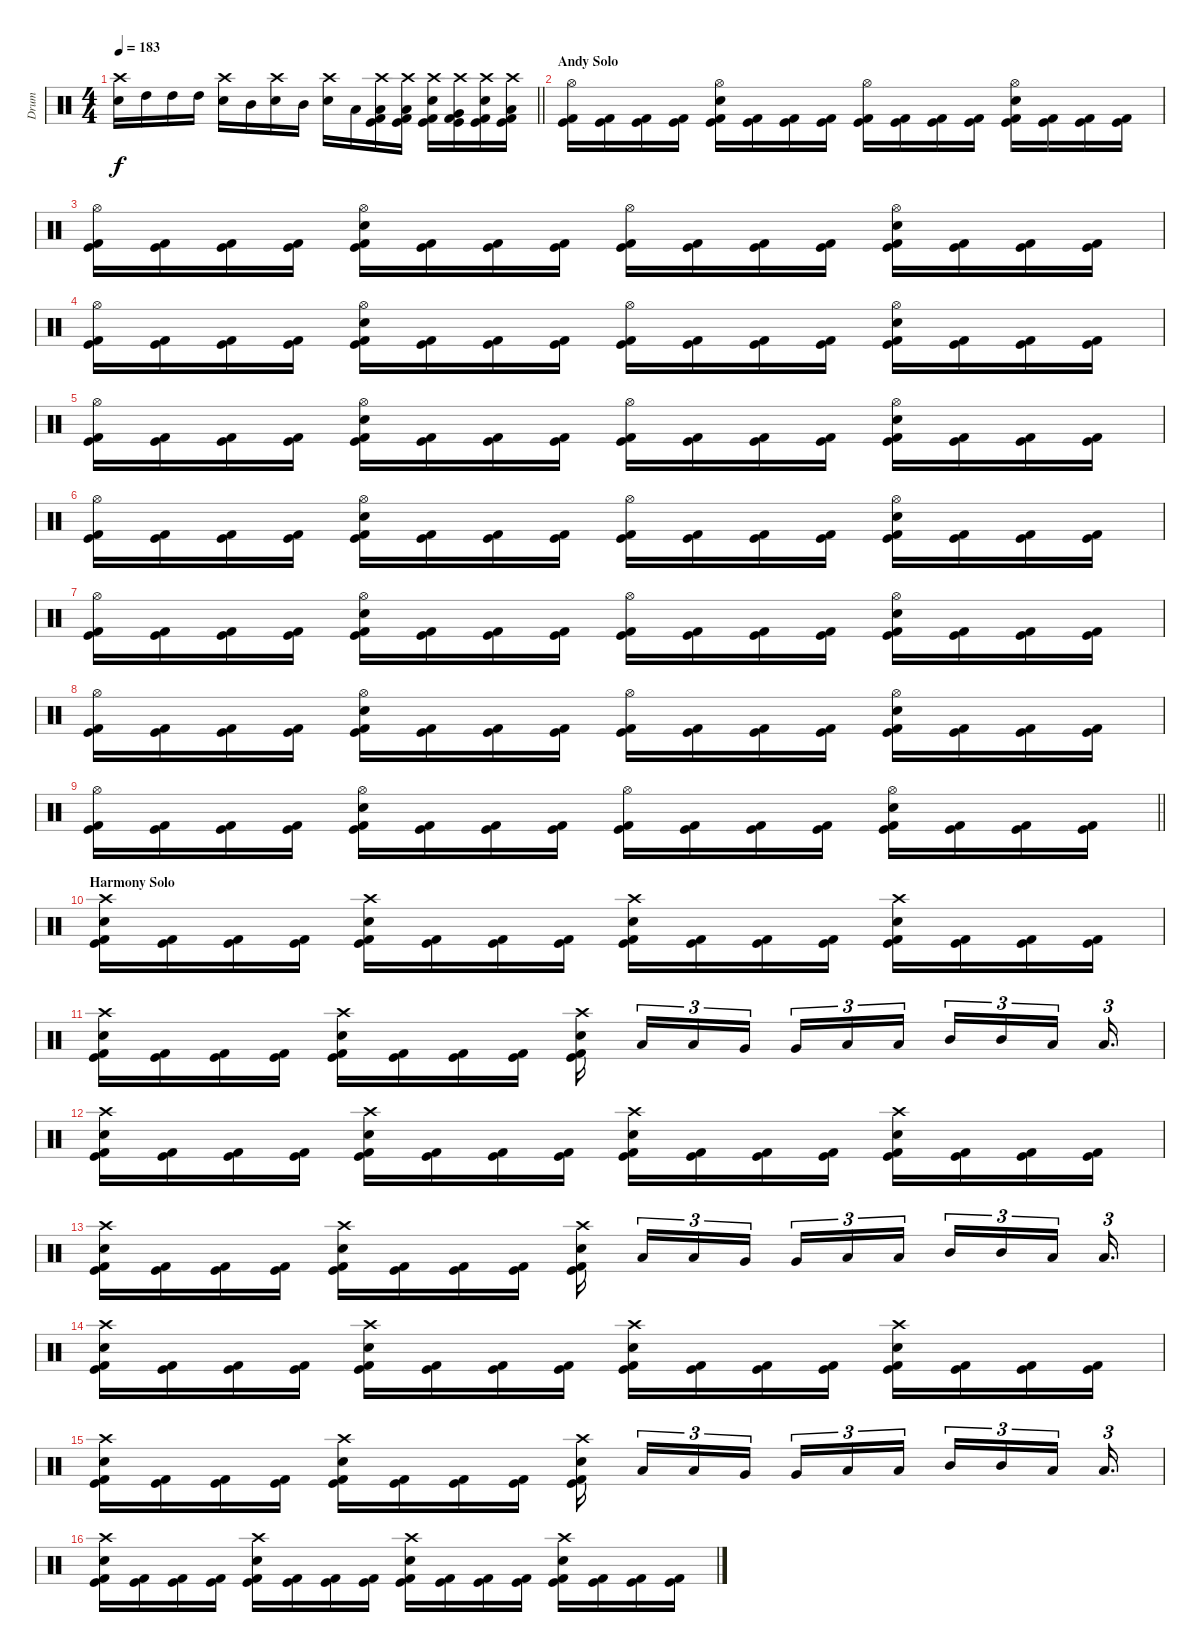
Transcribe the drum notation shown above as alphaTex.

\track ("Drum" "Drum") {instrument percussion}
\staff {score}
\articulation defaults
\ts (4 4)
\tempo 183
\clef neutral
\barLineRight lightlight
\ks c
("Crash high (hit)" "Electric Snare (hit)").16{dy f} "High Tom (hit)".16 "High Tom (hit)".16 "High Tom (hit)".16 ("Crash high (hit)" "Electric Snare (hit)").16 "Mid Tom (hit)".16 ("Crash high (hit)" "Electric Snare (hit)").16 "Mid Tom (hit)".16 ("Crash high (hit)" "Electric Snare (hit)").16 "Low Tom (hit)".16 ("Crash high (hit)" "Low Tom (hit)" "Kick (hit)" "Kick (hit) 2").16 ("Crash high (hit)" "Low Tom (hit)" "Kick (hit)" "Kick (hit) 2").16 ("Crash high (hit)" "Electric Snare (hit)" "Kick (hit)" "Kick (hit) 2").16 ("Crash high (hit)" "Very Low Tom (hit)" "Kick (hit)" "Kick (hit) 2").16 ("Crash high (hit)" "Electric Snare (hit)" "Kick (hit)" "Kick (hit) 2").16 ("Crash high (hit)" "Low Floor Tom (hit)" "Kick (hit)" "Kick (hit) 2").16 |
\section ("" "Andy Solo")
("Hi-Hat (open)" "Kick (hit)" "Kick (hit) 2").16 ("Kick (hit)" "Kick (hit) 2").16 ("Kick (hit)" "Kick (hit) 2").16 ("Kick (hit)" "Kick (hit) 2").16 ("Hi-Hat (open)" "Electric Snare (hit)" "Kick (hit)" "Kick (hit) 2").16 ("Kick (hit)" "Kick (hit) 2").16 ("Kick (hit)" "Kick (hit) 2").16 ("Kick (hit)" "Kick (hit) 2").16 ("Hi-Hat (open)" "Kick (hit)" "Kick (hit) 2").16 ("Kick (hit)" "Kick (hit) 2").16 ("Kick (hit)" "Kick (hit) 2").16 ("Kick (hit)" "Kick (hit) 2").16 ("Hi-Hat (open)" "Electric Snare (hit)" "Kick (hit)" "Kick (hit) 2").16 ("Kick (hit)" "Kick (hit) 2").16 ("Kick (hit)" "Kick (hit) 2").16 ("Kick (hit)" "Kick (hit) 2").16 |
("Hi-Hat (open)" "Kick (hit)" "Kick (hit) 2").16 ("Kick (hit)" "Kick (hit) 2").16 ("Kick (hit)" "Kick (hit) 2").16 ("Kick (hit)" "Kick (hit) 2").16 ("Hi-Hat (open)" "Electric Snare (hit)" "Kick (hit)" "Kick (hit) 2").16 ("Kick (hit)" "Kick (hit) 2").16 ("Kick (hit)" "Kick (hit) 2").16 ("Kick (hit)" "Kick (hit) 2").16 ("Hi-Hat (open)" "Kick (hit)" "Kick (hit) 2").16 ("Kick (hit)" "Kick (hit) 2").16 ("Kick (hit)" "Kick (hit) 2").16 ("Kick (hit)" "Kick (hit) 2").16 ("Hi-Hat (open)" "Electric Snare (hit)" "Kick (hit)" "Kick (hit) 2").16 ("Kick (hit)" "Kick (hit) 2").16 ("Kick (hit)" "Kick (hit) 2").16 ("Kick (hit)" "Kick (hit) 2").16 |
("Hi-Hat (open)" "Kick (hit)" "Kick (hit) 2").16 ("Kick (hit)" "Kick (hit) 2").16 ("Kick (hit)" "Kick (hit) 2").16 ("Kick (hit)" "Kick (hit) 2").16 ("Hi-Hat (open)" "Electric Snare (hit)" "Kick (hit)" "Kick (hit) 2").16 ("Kick (hit)" "Kick (hit) 2").16 ("Kick (hit)" "Kick (hit) 2").16 ("Kick (hit)" "Kick (hit) 2").16 ("Hi-Hat (open)" "Kick (hit)" "Kick (hit) 2").16 ("Kick (hit)" "Kick (hit) 2").16 ("Kick (hit)" "Kick (hit) 2").16 ("Kick (hit)" "Kick (hit) 2").16 ("Hi-Hat (open)" "Electric Snare (hit)" "Kick (hit)" "Kick (hit) 2").16 ("Kick (hit)" "Kick (hit) 2").16 ("Kick (hit)" "Kick (hit) 2").16 ("Kick (hit)" "Kick (hit) 2").16 |
("Hi-Hat (open)" "Kick (hit)" "Kick (hit) 2").16 ("Kick (hit)" "Kick (hit) 2").16 ("Kick (hit)" "Kick (hit) 2").16 ("Kick (hit)" "Kick (hit) 2").16 ("Hi-Hat (open)" "Electric Snare (hit)" "Kick (hit)" "Kick (hit) 2").16 ("Kick (hit)" "Kick (hit) 2").16 ("Kick (hit)" "Kick (hit) 2").16 ("Kick (hit)" "Kick (hit) 2").16 ("Hi-Hat (open)" "Kick (hit)" "Kick (hit) 2").16 ("Kick (hit)" "Kick (hit) 2").16 ("Kick (hit)" "Kick (hit) 2").16 ("Kick (hit)" "Kick (hit) 2").16 ("Hi-Hat (open)" "Electric Snare (hit)" "Kick (hit)" "Kick (hit) 2").16 ("Kick (hit)" "Kick (hit) 2").16 ("Kick (hit)" "Kick (hit) 2").16 ("Kick (hit)" "Kick (hit) 2").16 |
("Hi-Hat (open)" "Kick (hit)" "Kick (hit) 2").16 ("Kick (hit)" "Kick (hit) 2").16 ("Kick (hit)" "Kick (hit) 2").16 ("Kick (hit)" "Kick (hit) 2").16 ("Hi-Hat (open)" "Electric Snare (hit)" "Kick (hit)" "Kick (hit) 2").16 ("Kick (hit)" "Kick (hit) 2").16 ("Kick (hit)" "Kick (hit) 2").16 ("Kick (hit)" "Kick (hit) 2").16 ("Hi-Hat (open)" "Kick (hit)" "Kick (hit) 2").16 ("Kick (hit)" "Kick (hit) 2").16 ("Kick (hit)" "Kick (hit) 2").16 ("Kick (hit)" "Kick (hit) 2").16 ("Hi-Hat (open)" "Electric Snare (hit)" "Kick (hit)" "Kick (hit) 2").16 ("Kick (hit)" "Kick (hit) 2").16 ("Kick (hit)" "Kick (hit) 2").16 ("Kick (hit)" "Kick (hit) 2").16 |
("Hi-Hat (open)" "Kick (hit)" "Kick (hit) 2").16 ("Kick (hit)" "Kick (hit) 2").16 ("Kick (hit)" "Kick (hit) 2").16 ("Kick (hit)" "Kick (hit) 2").16 ("Hi-Hat (open)" "Electric Snare (hit)" "Kick (hit)" "Kick (hit) 2").16 ("Kick (hit)" "Kick (hit) 2").16 ("Kick (hit)" "Kick (hit) 2").16 ("Kick (hit)" "Kick (hit) 2").16 ("Hi-Hat (open)" "Kick (hit)" "Kick (hit) 2").16 ("Kick (hit)" "Kick (hit) 2").16 ("Kick (hit)" "Kick (hit) 2").16 ("Kick (hit)" "Kick (hit) 2").16 ("Hi-Hat (open)" "Electric Snare (hit)" "Kick (hit)" "Kick (hit) 2").16 ("Kick (hit)" "Kick (hit) 2").16 ("Kick (hit)" "Kick (hit) 2").16 ("Kick (hit)" "Kick (hit) 2").16 |
("Hi-Hat (open)" "Kick (hit)" "Kick (hit) 2").16 ("Kick (hit)" "Kick (hit) 2").16 ("Kick (hit)" "Kick (hit) 2").16 ("Kick (hit)" "Kick (hit) 2").16 ("Hi-Hat (open)" "Electric Snare (hit)" "Kick (hit)" "Kick (hit) 2").16 ("Kick (hit)" "Kick (hit) 2").16 ("Kick (hit)" "Kick (hit) 2").16 ("Kick (hit)" "Kick (hit) 2").16 ("Hi-Hat (open)" "Kick (hit)" "Kick (hit) 2").16 ("Kick (hit)" "Kick (hit) 2").16 ("Kick (hit)" "Kick (hit) 2").16 ("Kick (hit)" "Kick (hit) 2").16 ("Hi-Hat (open)" "Electric Snare (hit)" "Kick (hit)" "Kick (hit) 2").16 ("Kick (hit)" "Kick (hit) 2").16 ("Kick (hit)" "Kick (hit) 2").16 ("Kick (hit)" "Kick (hit) 2").16 |
\barLineRight lightlight
("Hi-Hat (open)" "Kick (hit)" "Kick (hit) 2").16 ("Kick (hit)" "Kick (hit) 2").16 ("Kick (hit)" "Kick (hit) 2").16 ("Kick (hit)" "Kick (hit) 2").16 ("Hi-Hat (open)" "Electric Snare (hit)" "Kick (hit)" "Kick (hit) 2").16 ("Kick (hit)" "Kick (hit) 2").16 ("Kick (hit)" "Kick (hit) 2").16 ("Kick (hit)" "Kick (hit) 2").16 ("Hi-Hat (open)" "Kick (hit)" "Kick (hit) 2").16 ("Kick (hit)" "Kick (hit) 2").16 ("Kick (hit)" "Kick (hit) 2").16 ("Kick (hit)" "Kick (hit) 2").16 ("Hi-Hat (open)" "Electric Snare (hit)" "Kick (hit)" "Kick (hit) 2").16 ("Kick (hit)" "Kick (hit) 2").16 ("Kick (hit)" "Kick (hit) 2").16 ("Kick (hit)" "Kick (hit) 2").16 |
\section ("" "Harmony Solo")
("Crash high (hit)" "Electric Snare (hit)" "Kick (hit)" "Kick (hit) 2").16 ("Kick (hit)" "Kick (hit) 2").16 ("Kick (hit)" "Kick (hit) 2").16 ("Kick (hit)" "Kick (hit) 2").16 ("Crash high (hit)" "Electric Snare (hit)" "Kick (hit)" "Kick (hit) 2").16 ("Kick (hit)" "Kick (hit) 2").16 ("Kick (hit)" "Kick (hit) 2").16 ("Kick (hit)" "Kick (hit) 2").16 ("Crash high (hit)" "Electric Snare (hit)" "Kick (hit)" "Kick (hit) 2").16 ("Kick (hit)" "Kick (hit) 2").16 ("Kick (hit)" "Kick (hit) 2").16 ("Kick (hit)" "Kick (hit) 2").16 ("Crash high (hit)" "Electric Snare (hit)" "Kick (hit)" "Kick (hit) 2").16 ("Kick (hit)" "Kick (hit) 2").16 ("Kick (hit)" "Kick (hit) 2").16 ("Kick (hit)" "Kick (hit) 2").16 |
("Crash high (hit)" "Electric Snare (hit)" "Kick (hit)" "Kick (hit) 2").16 ("Kick (hit)" "Kick (hit) 2").16 ("Kick (hit)" "Kick (hit) 2").16 ("Kick (hit)" "Kick (hit) 2").16 ("Crash high (hit)" "Electric Snare (hit)" "Kick (hit)" "Kick (hit) 2").16 ("Kick (hit)" "Kick (hit) 2").16 ("Kick (hit)" "Kick (hit) 2").16 ("Kick (hit)" "Kick (hit) 2").16 ("Crash high (hit)" "Electric Snare (hit)" "Kick (hit)" "Kick (hit) 2").16{beam splitsecondary} "Low Tom (hit)".16{tu (3 2)} "Low Tom (hit)".16{tu (3 2)} "Very Low Tom (hit)".16{tu (3 2) beam splitsecondary} "Very Low Tom (hit)".16{tu (3 2)} "Low Floor Tom (hit)".16{tu (3 2)} "Low Floor Tom (hit)".16{tu (3 2) beam splitsecondary} "Mid Tom (hit)".16{tu (3 2)} "Mid Tom (hit)".16{tu (3 2)} "Low Tom (hit)".16{tu (3 2) beam splitsecondary} "Low Tom (hit)".16{d tu (3 2)} |
("Crash high (hit)" "Electric Snare (hit)" "Kick (hit)" "Kick (hit) 2").16 ("Kick (hit)" "Kick (hit) 2").16 ("Kick (hit)" "Kick (hit) 2").16 ("Kick (hit)" "Kick (hit) 2").16 ("Crash high (hit)" "Electric Snare (hit)" "Kick (hit)" "Kick (hit) 2").16 ("Kick (hit)" "Kick (hit) 2").16 ("Kick (hit)" "Kick (hit) 2").16 ("Kick (hit)" "Kick (hit) 2").16 ("Crash high (hit)" "Electric Snare (hit)" "Kick (hit)" "Kick (hit) 2").16 ("Kick (hit)" "Kick (hit) 2").16 ("Kick (hit)" "Kick (hit) 2").16 ("Kick (hit)" "Kick (hit) 2").16 ("Crash high (hit)" "Electric Snare (hit)" "Kick (hit)" "Kick (hit) 2").16 ("Kick (hit)" "Kick (hit) 2").16 ("Kick (hit)" "Kick (hit) 2").16 ("Kick (hit)" "Kick (hit) 2").16 |
("Crash high (hit)" "Electric Snare (hit)" "Kick (hit)" "Kick (hit) 2").16 ("Kick (hit)" "Kick (hit) 2").16 ("Kick (hit)" "Kick (hit) 2").16 ("Kick (hit)" "Kick (hit) 2").16 ("Crash high (hit)" "Electric Snare (hit)" "Kick (hit)" "Kick (hit) 2").16 ("Kick (hit)" "Kick (hit) 2").16 ("Kick (hit)" "Kick (hit) 2").16 ("Kick (hit)" "Kick (hit) 2").16 ("Crash high (hit)" "Electric Snare (hit)" "Kick (hit)" "Kick (hit) 2").16{beam splitsecondary} "Low Tom (hit)".16{tu (3 2)} "Low Tom (hit)".16{tu (3 2)} "Very Low Tom (hit)".16{tu (3 2) beam splitsecondary} "Very Low Tom (hit)".16{tu (3 2)} "Low Floor Tom (hit)".16{tu (3 2)} "Low Floor Tom (hit)".16{tu (3 2) beam splitsecondary} "Mid Tom (hit)".16{tu (3 2)} "Mid Tom (hit)".16{tu (3 2)} "Low Tom (hit)".16{tu (3 2) beam splitsecondary} "Low Tom (hit)".16{d tu (3 2)} |
("Crash high (hit)" "Electric Snare (hit)" "Kick (hit)" "Kick (hit) 2").16 ("Kick (hit)" "Kick (hit) 2").16 ("Kick (hit)" "Kick (hit) 2").16 ("Kick (hit)" "Kick (hit) 2").16 ("Crash high (hit)" "Electric Snare (hit)" "Kick (hit)" "Kick (hit) 2").16 ("Kick (hit)" "Kick (hit) 2").16 ("Kick (hit)" "Kick (hit) 2").16 ("Kick (hit)" "Kick (hit) 2").16 ("Crash high (hit)" "Electric Snare (hit)" "Kick (hit)" "Kick (hit) 2").16 ("Kick (hit)" "Kick (hit) 2").16 ("Kick (hit)" "Kick (hit) 2").16 ("Kick (hit)" "Kick (hit) 2").16 ("Crash high (hit)" "Electric Snare (hit)" "Kick (hit)" "Kick (hit) 2").16 ("Kick (hit)" "Kick (hit) 2").16 ("Kick (hit)" "Kick (hit) 2").16 ("Kick (hit)" "Kick (hit) 2").16 |
("Crash high (hit)" "Electric Snare (hit)" "Kick (hit)" "Kick (hit) 2").16 ("Kick (hit)" "Kick (hit) 2").16 ("Kick (hit)" "Kick (hit) 2").16 ("Kick (hit)" "Kick (hit) 2").16 ("Crash high (hit)" "Electric Snare (hit)" "Kick (hit)" "Kick (hit) 2").16 ("Kick (hit)" "Kick (hit) 2").16 ("Kick (hit)" "Kick (hit) 2").16 ("Kick (hit)" "Kick (hit) 2").16 ("Crash high (hit)" "Electric Snare (hit)" "Kick (hit)" "Kick (hit) 2").16{beam splitsecondary} "Low Tom (hit)".16{tu (3 2)} "Low Tom (hit)".16{tu (3 2)} "Very Low Tom (hit)".16{tu (3 2) beam splitsecondary} "Very Low Tom (hit)".16{tu (3 2)} "Low Floor Tom (hit)".16{tu (3 2)} "Low Floor Tom (hit)".16{tu (3 2) beam splitsecondary} "Mid Tom (hit)".16{tu (3 2)} "Mid Tom (hit)".16{tu (3 2)} "Low Tom (hit)".16{tu (3 2) beam splitsecondary} "Low Tom (hit)".16{d tu (3 2)} |
("Crash high (hit)" "Electric Snare (hit)" "Kick (hit)" "Kick (hit) 2").16 ("Kick (hit)" "Kick (hit) 2").16 ("Kick (hit)" "Kick (hit) 2").16 ("Kick (hit)" "Kick (hit) 2").16 ("Crash high (hit)" "Electric Snare (hit)" "Kick (hit)" "Kick (hit) 2").16 ("Kick (hit)" "Kick (hit) 2").16 ("Kick (hit)" "Kick (hit) 2").16 ("Kick (hit)" "Kick (hit) 2").16 ("Crash high (hit)" "Electric Snare (hit)" "Kick (hit)" "Kick (hit) 2").16 ("Kick (hit)" "Kick (hit) 2").16 ("Kick (hit)" "Kick (hit) 2").16 ("Kick (hit)" "Kick (hit) 2").16 ("Crash high (hit)" "Electric Snare (hit)" "Kick (hit)" "Kick (hit) 2").16 ("Kick (hit)" "Kick (hit) 2").16 ("Kick (hit)" "Kick (hit) 2").16 ("Kick (hit)" "Kick (hit) 2").16
